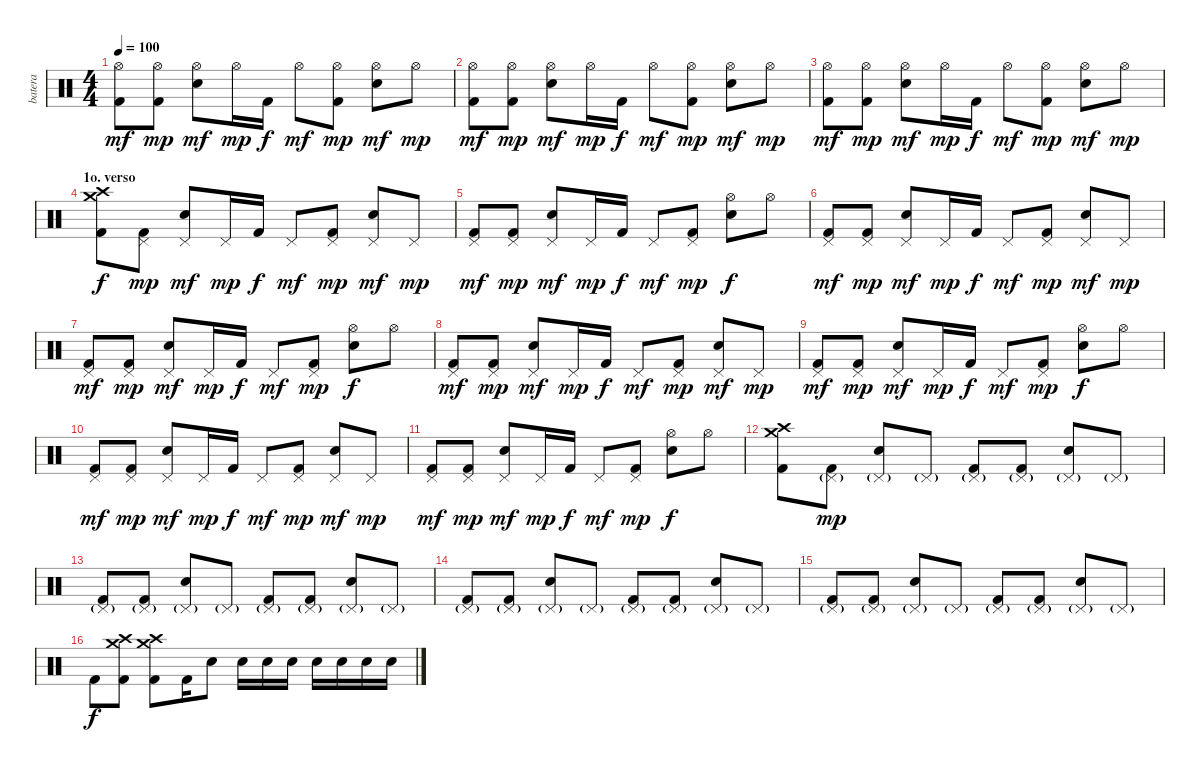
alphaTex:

\track ("batera" "batera") {instrument percussion}
\staff {score}
\articulation defaults
\ts (4 4)
\tempo 100
\clef neutral
\ks c
("Kick (hit) 2" "Hi-Hat (open)").8{dy mf} ("Kick (hit) 2" "Hi-Hat (open)").8{dy mp} ("Snare (hit) 2" "Hi-Hat (open)").8{dy mf} "Hi-Hat (open)".16{dy mp} "Kick (hit) 2".16{dy f} "Hi-Hat (open)".8{dy mf} ("Kick (hit) 2" "Hi-Hat (open)").8{dy mp} ("Snare (hit) 2" "Hi-Hat (open)").8{dy mf} "Hi-Hat (open)".8{dy mp} |
("Kick (hit) 2" "Hi-Hat (open)").8{dy mf} ("Kick (hit) 2" "Hi-Hat (open)").8{dy mp} ("Snare (hit) 2" "Hi-Hat (open)").8{dy mf} "Hi-Hat (open)".16{dy mp} "Kick (hit) 2".16{dy f} "Hi-Hat (open)".8{dy mf} ("Kick (hit) 2" "Hi-Hat (open)").8{dy mp} ("Snare (hit) 2" "Hi-Hat (open)").8{dy mf} "Hi-Hat (open)".8{dy mp} |
("Kick (hit) 2" "Hi-Hat (open)").8{dy mf} ("Kick (hit) 2" "Hi-Hat (open)").8{dy mp} ("Snare (hit) 2" "Hi-Hat (open)").8{dy mf} "Hi-Hat (open)".16{dy mp} "Kick (hit) 2".16{dy f} "Hi-Hat (open)".8{dy mf} ("Kick (hit) 2" "Hi-Hat (open)").8{dy mp} ("Snare (hit) 2" "Hi-Hat (open)").8{dy mf} "Hi-Hat (open)".8{dy mp} |
\section ("" "1o. verso")
("Crash high (hit)" "Crash medium (hit)" "Kick (hit) 2").8{dy f} ("Kick (hit) 2" "Pedal Hi-Hat (hit)").8{dy mp} ("Snare (hit) 2" "Pedal Hi-Hat (hit)").8{dy mf} "Pedal Hi-Hat (hit)".16{dy mp} "Kick (hit) 2".16{dy f} "Pedal Hi-Hat (hit)".8{dy mf} ("Kick (hit) 2" "Pedal Hi-Hat (hit)").8{dy mp} ("Snare (hit) 2" "Pedal Hi-Hat (hit)").8{dy mf} "Pedal Hi-Hat (hit)".8{dy mp} |
("Kick (hit) 2" "Pedal Hi-Hat (hit)").8{dy mf} ("Kick (hit) 2" "Pedal Hi-Hat (hit)").8{dy mp} ("Snare (hit) 2" "Pedal Hi-Hat (hit)").8{dy mf} "Pedal Hi-Hat (hit)".16{dy mp} "Kick (hit) 2".16{dy f} "Pedal Hi-Hat (hit)".8{dy mf} ("Kick (hit) 2" "Pedal Hi-Hat (hit)").8{dy mp} ("Snare (hit) 2" "Hi-Hat (open)").8{dy f} "Hi-Hat (open)".8 |
("Kick (hit) 2" "Pedal Hi-Hat (hit)").8{dy mf} ("Kick (hit) 2" "Pedal Hi-Hat (hit)").8{dy mp} ("Snare (hit) 2" "Pedal Hi-Hat (hit)").8{dy mf} "Pedal Hi-Hat (hit)".16{dy mp} "Kick (hit) 2".16{dy f} "Pedal Hi-Hat (hit)".8{dy mf} ("Kick (hit) 2" "Pedal Hi-Hat (hit)").8{dy mp} ("Snare (hit) 2" "Pedal Hi-Hat (hit)").8{dy mf} "Pedal Hi-Hat (hit)".8{dy mp} |
("Kick (hit) 2" "Pedal Hi-Hat (hit)").8{dy mf} ("Kick (hit) 2" "Pedal Hi-Hat (hit)").8{dy mp} ("Snare (hit) 2" "Pedal Hi-Hat (hit)").8{dy mf} "Pedal Hi-Hat (hit)".16{dy mp} "Kick (hit) 2".16{dy f} "Pedal Hi-Hat (hit)".8{dy mf} ("Kick (hit) 2" "Pedal Hi-Hat (hit)").8{dy mp} ("Snare (hit) 2" "Hi-Hat (open)").8{dy f} "Hi-Hat (open)".8 |
("Kick (hit) 2" "Pedal Hi-Hat (hit)").8{dy mf} ("Kick (hit) 2" "Pedal Hi-Hat (hit)").8{dy mp} ("Snare (hit) 2" "Pedal Hi-Hat (hit)").8{dy mf} "Pedal Hi-Hat (hit)".16{dy mp} "Kick (hit) 2".16{dy f} "Pedal Hi-Hat (hit)".8{dy mf} ("Kick (hit) 2" "Pedal Hi-Hat (hit)").8{dy mp} ("Snare (hit) 2" "Pedal Hi-Hat (hit)").8{dy mf} "Pedal Hi-Hat (hit)".8{dy mp} |
("Kick (hit) 2" "Pedal Hi-Hat (hit)").8{dy mf} ("Kick (hit) 2" "Pedal Hi-Hat (hit)").8{dy mp} ("Snare (hit) 2" "Pedal Hi-Hat (hit)").8{dy mf} "Pedal Hi-Hat (hit)".16{dy mp} "Kick (hit) 2".16{dy f} "Pedal Hi-Hat (hit)".8{dy mf} ("Kick (hit) 2" "Pedal Hi-Hat (hit)").8{dy mp} ("Snare (hit) 2" "Hi-Hat (open)").8{dy f} "Hi-Hat (open)".8 |
("Kick (hit) 2" "Pedal Hi-Hat (hit)").8{dy mf} ("Kick (hit) 2" "Pedal Hi-Hat (hit)").8{dy mp} ("Snare (hit) 2" "Pedal Hi-Hat (hit)").8{dy mf} "Pedal Hi-Hat (hit)".16{dy mp} "Kick (hit) 2".16{dy f} "Pedal Hi-Hat (hit)".8{dy mf} ("Kick (hit) 2" "Pedal Hi-Hat (hit)").8{dy mp} ("Snare (hit) 2" "Pedal Hi-Hat (hit)").8{dy mf} "Pedal Hi-Hat (hit)".8{dy mp} |
("Kick (hit) 2" "Pedal Hi-Hat (hit)").8{dy mf} ("Kick (hit) 2" "Pedal Hi-Hat (hit)").8{dy mp} ("Snare (hit) 2" "Pedal Hi-Hat (hit)").8{dy mf} "Pedal Hi-Hat (hit)".16{dy mp} "Kick (hit) 2".16{dy f} "Pedal Hi-Hat (hit)".8{dy mf} ("Kick (hit) 2" "Pedal Hi-Hat (hit)").8{dy mp} ("Snare (hit) 2" "Hi-Hat (open)").8{dy f} "Hi-Hat (open)".8 |
("Crash high (hit)" "Crash medium (hit)" "Kick (hit) 2").8 ("Kick (hit) 2" "Pedal Hi-Hat (hit)"{g}).8{dy mp} ("Snare (hit) 2" "Pedal Hi-Hat (hit)"{g}).8 "Pedal Hi-Hat (hit)"{g}.8 ("Kick (hit) 2" "Pedal Hi-Hat (hit)"{g}).8 ("Kick (hit) 2" "Pedal Hi-Hat (hit)"{g}).8 ("Snare (hit) 2" "Pedal Hi-Hat (hit)"{g}).8 "Pedal Hi-Hat (hit)"{g}.8 |
("Kick (hit) 2" "Pedal Hi-Hat (hit)"{g}).8 ("Kick (hit) 2" "Pedal Hi-Hat (hit)"{g}).8 ("Snare (hit) 2" "Pedal Hi-Hat (hit)"{g}).8 "Pedal Hi-Hat (hit)"{g}.8 ("Kick (hit) 2" "Pedal Hi-Hat (hit)"{g}).8 ("Kick (hit) 2" "Pedal Hi-Hat (hit)"{g}).8 ("Snare (hit) 2" "Pedal Hi-Hat (hit)"{g}).8 "Pedal Hi-Hat (hit)"{g}.8 |
("Kick (hit) 2" "Pedal Hi-Hat (hit)"{g}).8 ("Kick (hit) 2" "Pedal Hi-Hat (hit)"{g}).8 ("Snare (hit) 2" "Pedal Hi-Hat (hit)"{g}).8 "Pedal Hi-Hat (hit)"{g}.8 ("Kick (hit) 2" "Pedal Hi-Hat (hit)"{g}).8 ("Kick (hit) 2" "Pedal Hi-Hat (hit)"{g}).8 ("Snare (hit) 2" "Pedal Hi-Hat (hit)"{g}).8 "Pedal Hi-Hat (hit)"{g}.8 |
("Kick (hit) 2" "Pedal Hi-Hat (hit)"{g}).8 ("Kick (hit) 2" "Pedal Hi-Hat (hit)"{g}).8 ("Snare (hit) 2" "Pedal Hi-Hat (hit)"{g}).8 "Pedal Hi-Hat (hit)"{g}.8 ("Kick (hit) 2" "Pedal Hi-Hat (hit)"{g}).8 ("Kick (hit) 2" "Pedal Hi-Hat (hit)"{g}).8 ("Snare (hit) 2" "Pedal Hi-Hat (hit)"{g}).8 "Pedal Hi-Hat (hit)"{g}.8 |
"Kick (hit) 2".8{dy f} ("Crash high (hit)" "Crash medium (hit)" "Kick (hit) 2").8 ("Crash high (hit)" "Crash medium (hit)" "Kick (hit) 2").8 "Kick (hit) 2".16 "Snare (hit) 2".8 "Snare (hit) 2".16 "Snare (hit) 2".16 "Snare (hit) 2".16 "Snare (hit) 2".16 "Snare (hit) 2".16 "Snare (hit) 2".16 "Snare (hit) 2".16
